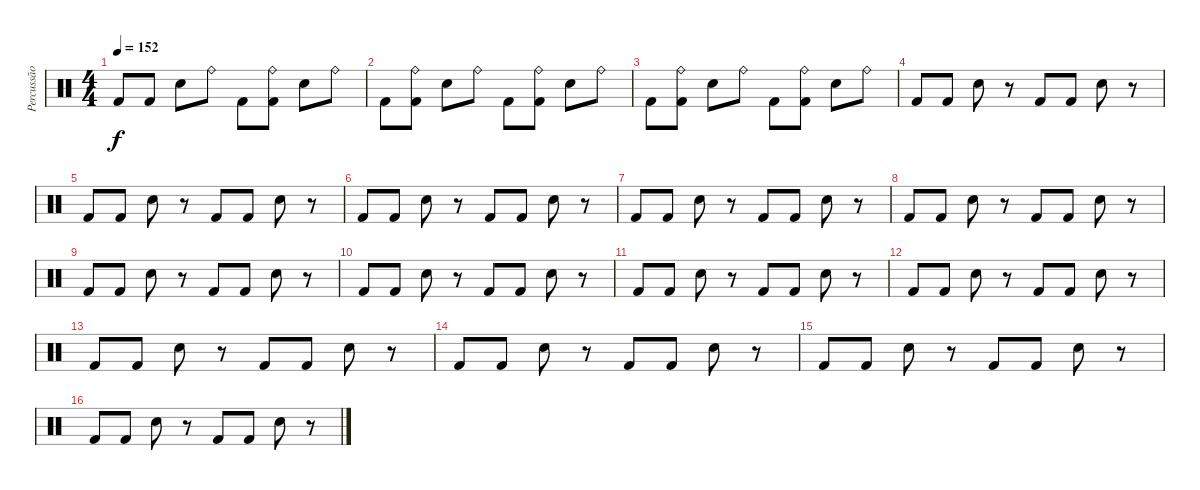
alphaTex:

\track ("Percussão" "Percussão") {instrument percussion}
\staff {score}
\articulation defaults
\ts (4 4)
\tempo 152
\clef neutral
\ks c "Kick (hit) 2".8{dy f} "Kick (hit) 2".8 "Snare (hit) 2".8 "Ride (bell)".8 "Kick (hit) 2".8
("Ride (bell)" "Kick (hit) 2").8 "Snare (hit) 2".8 "Ride (bell)".8 |
"Kick (hit) 2".8 ("Ride (bell)" "Kick (hit) 2").8 "Snare (hit) 2".8 "Ride (bell)".8 "Kick (hit) 2".8 ("Ride (bell)" "Kick (hit) 2").8 "Snare (hit) 2".8 "Ride (bell)".8 |
"Kick (hit) 2".8 ("Ride (bell)" "Kick (hit) 2").8 "Snare (hit) 2".8 "Ride (bell)".8 "Kick (hit) 2".8 ("Ride (bell)" "Kick (hit) 2").8 "Snare (hit) 2".8 "Ride (bell)".8 |
"Kick (hit) 2".8 "Kick (hit) 2".8 "Snare (hit) 2".8 r.8 "Kick (hit) 2".8 "Kick (hit) 2".8 "Snare (hit) 2".8 r.8 |
"Kick (hit) 2".8 "Kick (hit) 2".8 "Snare (hit) 2".8 r.8 "Kick (hit) 2".8 "Kick (hit) 2".8 "Snare (hit) 2".8 r.8 |
"Kick (hit) 2".8 "Kick (hit) 2".8 "Snare (hit) 2".8 r.8 "Kick (hit) 2".8 "Kick (hit) 2".8 "Snare (hit) 2".8 r.8 |
"Kick (hit) 2".8 "Kick (hit) 2".8 "Snare (hit) 2".8 r.8 "Kick (hit) 2".8 "Kick (hit) 2".8 "Snare (hit) 2".8 r.8 |
"Kick (hit) 2".8 "Kick (hit) 2".8 "Snare (hit) 2".8 r.8 "Kick (hit) 2".8 "Kick (hit) 2".8 "Snare (hit) 2".8 r.8 |
"Kick (hit) 2".8 "Kick (hit) 2".8 "Snare (hit) 2".8 r.8 "Kick (hit) 2".8 "Kick (hit) 2".8 "Snare (hit) 2".8 r.8 |
"Kick (hit) 2".8 "Kick (hit) 2".8 "Snare (hit) 2".8 r.8 "Kick (hit) 2".8 "Kick (hit) 2".8 "Snare (hit) 2".8 r.8 |
"Kick (hit) 2".8 "Kick (hit) 2".8 "Snare (hit) 2".8 r.8 "Kick (hit) 2".8 "Kick (hit) 2".8 "Snare (hit) 2".8 r.8 |
"Kick (hit) 2".8 "Kick (hit) 2".8 "Snare (hit) 2".8 r.8 "Kick (hit) 2".8 "Kick (hit) 2".8 "Snare (hit) 2".8 r.8 |
"Kick (hit) 2".8 "Kick (hit) 2".8 "Snare (hit) 2".8 r.8 "Kick (hit) 2".8 "Kick (hit) 2".8 "Snare (hit) 2".8 r.8 |
"Kick (hit) 2".8 "Kick (hit) 2".8 "Snare (hit) 2".8 r.8 "Kick (hit) 2".8 "Kick (hit) 2".8 "Snare (hit) 2".8 r.8 |
"Kick (hit) 2".8 "Kick (hit) 2".8 "Snare (hit) 2".8 r.8 "Kick (hit) 2".8 "Kick (hit) 2".8 "Snare (hit) 2".8 r.8 |
"Kick (hit) 2".8 "Kick (hit) 2".8 "Snare (hit) 2".8 r.8 "Kick (hit) 2".8 "Kick (hit) 2".8 "Snare (hit) 2".8 r.8
